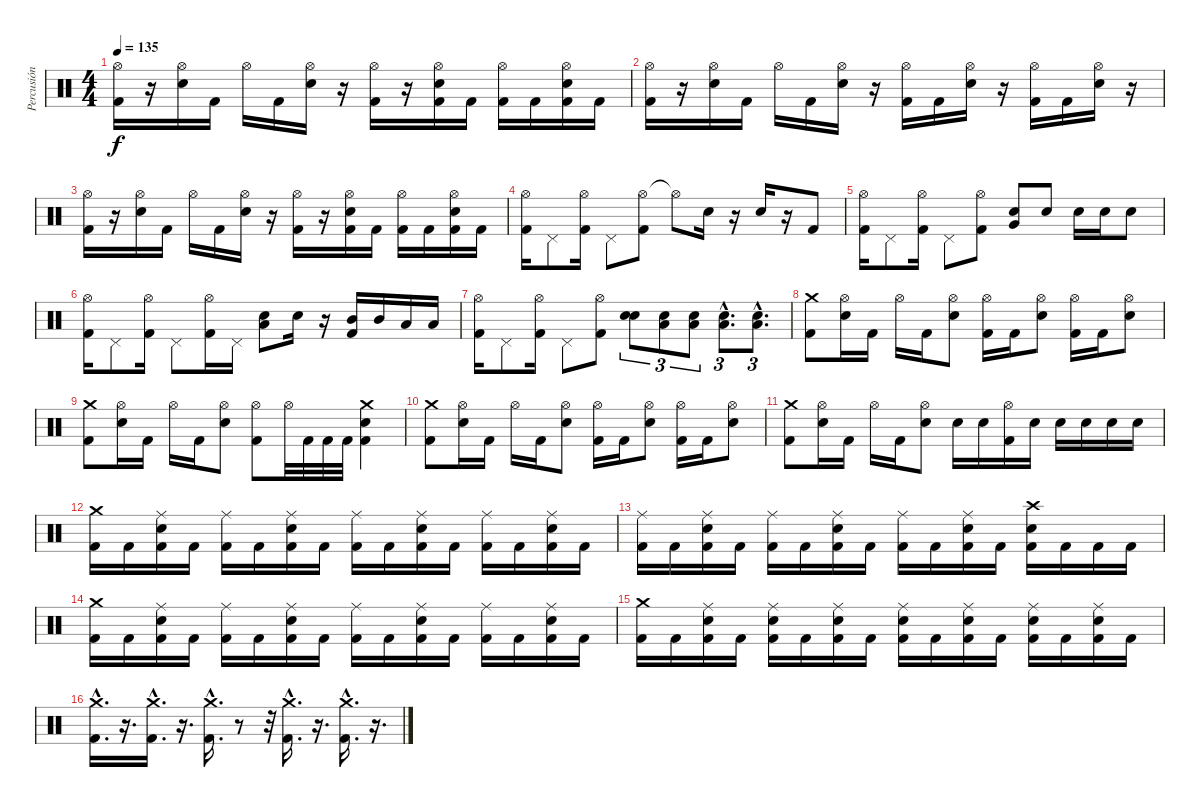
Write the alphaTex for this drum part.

\track ("Percusión" "Percusión") {instrument percussion}
\staff {score}
\articulation defaults
\ts (4 4)
\tempo 135
\clef neutral
\ks c
("Hi-Hat (open)" "Kick (hit) 2").16{dy f} r.16 ("Hi-Hat (open)" "Electric Snare (hit)").16 "Kick (hit) 2".16 "Hi-Hat (open)".16 "Kick (hit) 2".16 ("Hi-Hat (open)" "Electric Snare (hit)").16 r.16 ("Hi-Hat (open)" "Kick (hit) 2").16 r.16 ("Hi-Hat (open)" "Electric Snare (hit)" "Kick (hit) 2").16 "Kick (hit) 2".16 ("Hi-Hat (open)" "Kick (hit) 2").16 "Kick (hit) 2".16 ("Hi-Hat (open)" "Electric Snare (hit)" "Kick (hit) 2").16 "Kick (hit) 2".16 |
("Hi-Hat (open)" "Kick (hit) 2").16 r.16 ("Hi-Hat (open)" "Electric Snare (hit)").16 "Kick (hit) 2".16 "Hi-Hat (open)".16 "Kick (hit) 2".16 ("Hi-Hat (open)" "Electric Snare (hit)").16 r.16 ("Hi-Hat (open)" "Kick (hit) 2").16 "Kick (hit) 2".16 ("Hi-Hat (open)" "Electric Snare (hit)").16 r.16 ("Hi-Hat (open)" "Kick (hit) 2").16 "Kick (hit) 2".16 ("Hi-Hat (open)" "Electric Snare (hit)").16 r.16 |
("Hi-Hat (open)" "Kick (hit) 2").16 r.16 ("Hi-Hat (open)" "Electric Snare (hit)").16 "Kick (hit) 2".16 "Hi-Hat (open)".16 "Kick (hit) 2".16 ("Hi-Hat (open)" "Electric Snare (hit)").16 r.16 ("Hi-Hat (open)" "Kick (hit) 2").16 r.16 ("Hi-Hat (open)" "Electric Snare (hit)" "Kick (hit) 2").16 "Kick (hit) 2".16 ("Hi-Hat (open)" "Kick (hit) 2").16 "Kick (hit) 2".16 ("Hi-Hat (open)" "Electric Snare (hit)" "Kick (hit) 2").16 "Kick (hit) 2".16 |
("Hi-Hat (open)" "Kick (hit) 2").16 "Pedal Hi-Hat (hit)".8 ("Hi-Hat (open)" "Kick (hit) 2").16 "Pedal Hi-Hat (hit)".8 ("Hi-Hat (open)" "Kick (hit) 2").8 "Hi-Hat (open)"{t}.8 "Electric Snare (hit)".16 r.16 "Electric Snare (hit)".16 r.16 "Kick (hit) 2".8 |
("Hi-Hat (open)" "Kick (hit) 2").16 "Pedal Hi-Hat (hit)".8 ("Hi-Hat (open)" "Kick (hit) 2").16 "Pedal Hi-Hat (hit)".8 ("Hi-Hat (open)" "Kick (hit) 2").8 ("Electric Snare (hit)" "Very Low Tom (hit)").8 "Electric Snare (hit)".8 "Electric Snare (hit)".16 "Electric Snare (hit)".16 "Electric Snare (hit)".8 |
("Hi-Hat (open)" "Kick (hit) 2").16 "Pedal Hi-Hat (hit)".8 ("Hi-Hat (open)" "Kick (hit) 2").16 "Pedal Hi-Hat (hit)".8 ("Hi-Hat (open)" "Kick (hit) 2").16 "Pedal Hi-Hat (hit)".16 ("Low Tom (hit)" "Electric Snare (hit)").8 "Electric Snare (hit)".16 r.16 ("Mid Tom (hit)" "Kick (hit) 2").16 "Mid Tom (hit)".16 "Low Tom (hit)".16 "Low Tom (hit)".16 |
("Hi-Hat (open)" "Kick (hit) 2").16 "Pedal Hi-Hat (hit)".8 ("Hi-Hat (open)" "Kick (hit) 2").16 "Pedal Hi-Hat (hit)".8 ("Hi-Hat (open)" "Kick (hit) 2").8 ("Electric Snare (hit)" "Electric Snare (hit)").8{tu (3 2)} ("Low Tom (hit)" "Electric Snare (hit)").8{tu (3 2)} ("Low Tom (hit)" "Electric Snare (hit)").8{tu (3 2)} ("Low Tom (hit)"{hac} "Electric Snare (hit)"{hac}).8{d tu (3 2)} ("Low Tom (hit)"{hac} "Electric Snare (hit)"{hac}).8{d tu (3 2)} |
("Crash medium (hit)" "Kick (hit) 2").8 ("Hi-Hat (open)" "Electric Snare (hit)").16 "Kick (hit) 2".16 "Hi-Hat (open)".16 "Kick (hit) 2".16 ("Hi-Hat (open)" "Electric Snare (hit)").8 ("Hi-Hat (open)" "Kick (hit) 2").16 "Kick (hit) 2".16 ("Hi-Hat (open)" "Electric Snare (hit)").8 ("Hi-Hat (open)" "Kick (hit) 2").16 "Kick (hit) 2".16 ("Hi-Hat (open)" "Electric Snare (hit)").8 |
("Crash medium (hit)" "Kick (hit) 2").8 ("Hi-Hat (open)" "Electric Snare (hit)").16 "Kick (hit) 2".16 "Hi-Hat (open)".16 "Kick (hit) 2".16 ("Hi-Hat (open)" "Electric Snare (hit)").8 ("Hi-Hat (open)" "Kick (hit) 2").8 "Hi-Hat (open)".32 "Kick (hit) 2".32 "Kick (hit) 2".32 "Kick (hit) 2".32 ("Crash medium (hit)" "Electric Snare (hit)" "Kick (hit) 2").4 |
("Crash medium (hit)" "Kick (hit) 2").8 ("Hi-Hat (open)" "Electric Snare (hit)").16 "Kick (hit) 2".16 "Hi-Hat (open)".16 "Kick (hit) 2".16 ("Hi-Hat (open)" "Electric Snare (hit)").8 ("Hi-Hat (open)" "Kick (hit) 2").16 "Kick (hit) 2".16 ("Hi-Hat (open)" "Electric Snare (hit)").8 ("Hi-Hat (open)" "Kick (hit) 2").16 "Kick (hit) 2".16 ("Hi-Hat (open)" "Electric Snare (hit)").8 |
("Crash medium (hit)" "Kick (hit) 2").8 ("Hi-Hat (open)" "Electric Snare (hit)").16 "Kick (hit) 2".16 "Hi-Hat (open)".16 "Kick (hit) 2".16 ("Hi-Hat (open)" "Electric Snare (hit)").8 "Electric Snare (hit)".16 "Electric Snare (hit)".16 ("Hi-Hat (open)" "Kick (hit) 2").16 "Electric Snare (hit)".16 "Electric Snare (hit)".16 "Electric Snare (hit)".16 "Electric Snare (hit)".16 "Electric Snare (hit)".16 |
("Crash medium (hit)" "Kick (hit) 2").16 "Kick (hit) 2".16 ("Ride (middle)" "Electric Snare (hit)" "Kick (hit) 2").16 "Kick (hit) 2".16 ("Ride (middle)" "Kick (hit) 2").16 "Kick (hit) 2".16 ("Ride (middle)" "Electric Snare (hit)" "Kick (hit) 2").16 "Kick (hit) 2".16 ("Ride (middle)" "Kick (hit) 2").16 "Kick (hit) 2".16 ("Ride (middle)" "Electric Snare (hit)" "Kick (hit) 2").16 "Kick (hit) 2".16 ("Ride (middle)" "Kick (hit) 2").16 "Kick (hit) 2".16 ("Ride (middle)" "Electric Snare (hit)" "Kick (hit) 2").16 "Kick (hit) 2".16 |
("Ride (middle)" "Kick (hit) 2").16 "Kick (hit) 2".16 ("Ride (middle)" "Electric Snare (hit)" "Kick (hit) 2").16 "Kick (hit) 2".16 ("Ride (middle)" "Kick (hit) 2").16 "Kick (hit) 2".16 ("Ride (middle)" "Electric Snare (hit)" "Kick (hit) 2").16 "Kick (hit) 2".16 ("Ride (middle)" "Kick (hit) 2").16 "Kick (hit) 2".16 ("Ride (middle)" "Electric Snare (hit)" "Kick (hit) 2").16 "Kick (hit) 2".16 ("Crash high (hit)" "Electric Snare (hit)" "Kick (hit) 2").16 "Kick (hit) 2".16 "Kick (hit) 2".16 "Kick (hit) 2".16 |
("Crash medium (hit)" "Kick (hit) 2").16 "Kick (hit) 2".16 ("Ride (middle)" "Electric Snare (hit)" "Kick (hit) 2").16 "Kick (hit) 2".16 ("Ride (middle)" "Kick (hit) 2").16 "Kick (hit) 2".16 ("Ride (middle)" "Electric Snare (hit)" "Kick (hit) 2").16 "Kick (hit) 2".16 ("Ride (middle)" "Kick (hit) 2").16 "Kick (hit) 2".16 ("Ride (middle)" "Electric Snare (hit)" "Kick (hit) 2").16 "Kick (hit) 2".16 ("Ride (middle)" "Kick (hit) 2").16 "Kick (hit) 2".16 ("Ride (middle)" "Electric Snare (hit)" "Kick (hit) 2").16 "Kick (hit) 2".16 |
("Crash medium (hit)" "Kick (hit) 2").16 "Kick (hit) 2".16 ("Ride (middle)" "Electric Snare (hit)" "Kick (hit) 2").16 "Kick (hit) 2".16 ("Ride (middle)" "Electric Snare (hit)" "Kick (hit) 2").16 "Kick (hit) 2".16 ("Ride (middle)" "Electric Snare (hit)" "Kick (hit) 2").16 "Kick (hit) 2".16 ("Ride (middle)" "Electric Snare (hit)" "Kick (hit) 2").16 "Kick (hit) 2".16 ("Ride (middle)" "Electric Snare (hit)" "Kick (hit) 2").16 "Kick (hit) 2".16 ("Ride (middle)" "Electric Snare (hit)" "Kick (hit) 2").16 "Kick (hit) 2".16 ("Ride (middle)" "Electric Snare (hit)" "Kick (hit) 2").16 "Kick (hit) 2".16 |
("Crash medium (hit)"{hac} "Kick (hit) 2"{hac}).16{d} r.16{d} ("Crash medium (hit)"{hac} "Kick (hit) 2"{hac}).16{d} r.16{d} ("Crash medium (hit)"{hac} "Kick (hit) 2"{hac}).16{d} r.8 r.32 ("Crash medium (hit)"{hac} "Kick (hit) 2"{hac}).16{d} r.16{d} ("Crash medium (hit)"{hac} "Kick (hit) 2"{hac}).16{d} r.16{d}
